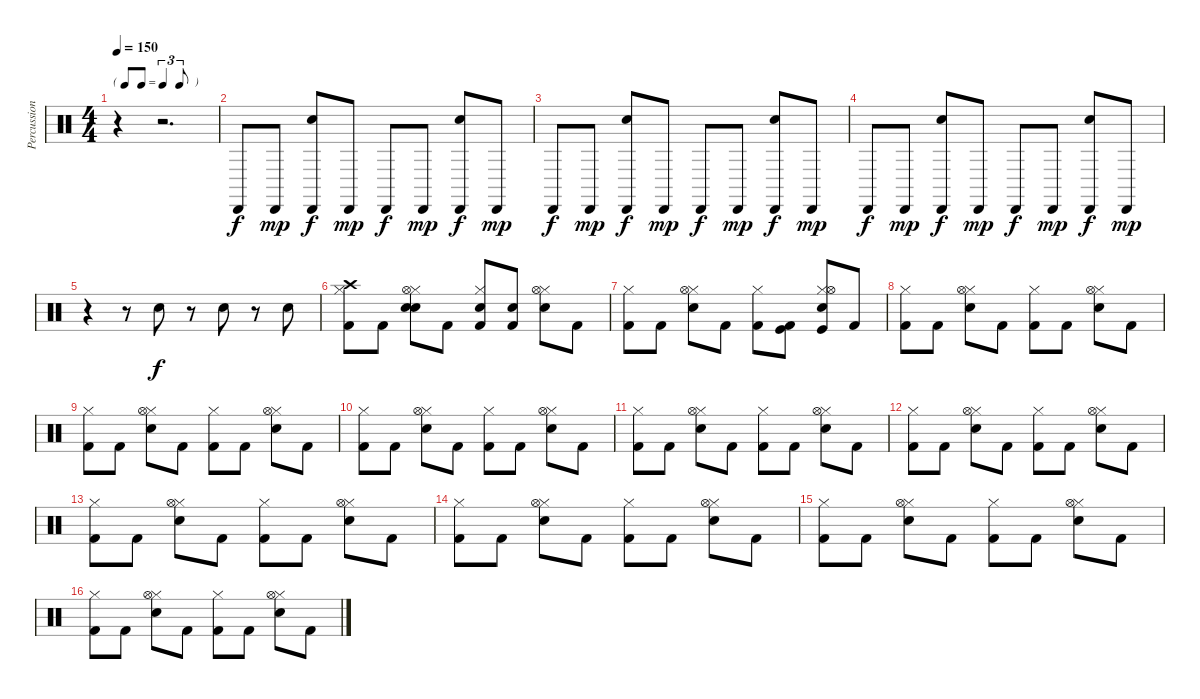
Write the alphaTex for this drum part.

\track ("Percussion" "Percussion") {instrument percussion}
\staff {score}
\articulation defaults
\ts (4 4)
\tf triplet8th
\tempo 150
\clef neutral
\ks c
r.4{dy f} r.2{d} |
"Cabasa (hit)".8 "Cabasa (hit)".8{dy mp} ("Cabasa (hit)" "Hand Clap (hit)").8{dy f} "Cabasa (hit)".8{dy mp} "Cabasa (hit)".8{dy f} "Cabasa (hit)".8{dy mp} ("Cabasa (hit)" "Hand Clap (hit)").8{dy f} "Cabasa (hit)".8{dy mp} |
"Cabasa (hit)".8{dy f} "Cabasa (hit)".8{dy mp} ("Cabasa (hit)" "Hand Clap (hit)").8{dy f} "Cabasa (hit)".8{dy mp} "Cabasa (hit)".8{dy f} "Cabasa (hit)".8{dy mp} ("Cabasa (hit)" "Hand Clap (hit)").8{dy f} "Cabasa (hit)".8{dy mp} |
"Cabasa (hit)".8{dy f} "Cabasa (hit)".8{dy mp} ("Cabasa (hit)" "Hand Clap (hit)").8{dy f} "Cabasa (hit)".8{dy mp} "Cabasa (hit)".8{dy f} "Cabasa (hit)".8{dy mp} ("Cabasa (hit)" "Hand Clap (hit)").8{dy f} "Cabasa (hit)".8{dy mp} |
r.4 r.8 "Snare (hit) 2".8{dy f} r.8 "Snare (hit) 2".8 r.8 "Snare (hit) 2".8 |
("Hi-Hat (closed)" "Kick (hit) 2" "Crash high (hit)").8 "Kick (hit) 2".8 ("Hi-Hat (closed)" "Snare (hit) 2" "Snare (hit)" "Hi-Hat (open)").8 "Kick (hit) 2".8 ("Hi-Hat (closed)" "Kick (hit) 2" "Snare (hit)").8 ("Kick (hit) 2" "Snare (hit)").8 ("Hi-Hat (closed)" "Snare (hit) 2" "Hi-Hat (open)").8 "Kick (hit) 2".8 |
("Hi-Hat (closed)" "Kick (hit) 2").8 "Kick (hit) 2".8 ("Hi-Hat (closed)" "Snare (hit) 2" "Hi-Hat (open)").8 "Kick (hit) 2".8 ("Hi-Hat (closed)" "Kick (hit) 2").8 ("Kick (hit) 2" "Kick (hit)").8 ("Hi-Hat (closed)" "Snare (hit) 2" "Hi-Hat (open)" "Kick (hit)").8 "Kick (hit) 2".8 |
("Hi-Hat (closed)" "Kick (hit) 2").8 "Kick (hit) 2".8 ("Hi-Hat (closed)" "Snare (hit) 2" "Hi-Hat (open)").8 "Kick (hit) 2".8 ("Hi-Hat (closed)" "Kick (hit) 2").8 "Kick (hit) 2".8 ("Hi-Hat (closed)" "Snare (hit) 2" "Hi-Hat (open)").8 "Kick (hit) 2".8 |
("Hi-Hat (closed)" "Kick (hit) 2").8 "Kick (hit) 2".8 ("Hi-Hat (closed)" "Snare (hit) 2" "Hi-Hat (open)").8 "Kick (hit) 2".8 ("Hi-Hat (closed)" "Kick (hit) 2").8 "Kick (hit) 2".8 ("Hi-Hat (closed)" "Snare (hit) 2" "Hi-Hat (open)").8 "Kick (hit) 2".8 |
("Hi-Hat (closed)" "Kick (hit) 2").8 "Kick (hit) 2".8 ("Hi-Hat (closed)" "Snare (hit) 2" "Hi-Hat (open)").8 "Kick (hit) 2".8 ("Hi-Hat (closed)" "Kick (hit) 2").8 "Kick (hit) 2".8 ("Hi-Hat (closed)" "Snare (hit) 2" "Hi-Hat (open)").8 "Kick (hit) 2".8 |
("Hi-Hat (closed)" "Kick (hit) 2").8 "Kick (hit) 2".8 ("Hi-Hat (closed)" "Snare (hit) 2" "Hi-Hat (open)").8 "Kick (hit) 2".8 ("Hi-Hat (closed)" "Kick (hit) 2").8 "Kick (hit) 2".8 ("Hi-Hat (closed)" "Snare (hit) 2" "Hi-Hat (open)").8 "Kick (hit) 2".8 |
("Hi-Hat (closed)" "Kick (hit) 2").8 "Kick (hit) 2".8 ("Hi-Hat (closed)" "Snare (hit) 2" "Hi-Hat (open)").8 "Kick (hit) 2".8 ("Hi-Hat (closed)" "Kick (hit) 2").8 "Kick (hit) 2".8 ("Hi-Hat (closed)" "Snare (hit) 2" "Hi-Hat (open)").8 "Kick (hit) 2".8 |
("Hi-Hat (closed)" "Kick (hit) 2").8 "Kick (hit) 2".8 ("Hi-Hat (closed)" "Snare (hit) 2" "Hi-Hat (open)").8 "Kick (hit) 2".8 ("Hi-Hat (closed)" "Kick (hit) 2").8 "Kick (hit) 2".8 ("Hi-Hat (closed)" "Snare (hit) 2" "Hi-Hat (open)").8 "Kick (hit) 2".8 |
("Hi-Hat (closed)" "Kick (hit) 2").8 "Kick (hit) 2".8 ("Hi-Hat (closed)" "Snare (hit) 2" "Hi-Hat (open)").8 "Kick (hit) 2".8 ("Hi-Hat (closed)" "Kick (hit) 2").8 "Kick (hit) 2".8 ("Hi-Hat (closed)" "Snare (hit) 2" "Hi-Hat (open)").8 "Kick (hit) 2".8 |
("Hi-Hat (closed)" "Kick (hit) 2").8 "Kick (hit) 2".8 ("Hi-Hat (closed)" "Snare (hit) 2" "Hi-Hat (open)").8 "Kick (hit) 2".8 ("Hi-Hat (closed)" "Kick (hit) 2").8 "Kick (hit) 2".8 ("Hi-Hat (closed)" "Snare (hit) 2" "Hi-Hat (open)").8 "Kick (hit) 2".8 |
("Hi-Hat (closed)" "Kick (hit) 2").8 "Kick (hit) 2".8 ("Hi-Hat (closed)" "Snare (hit) 2" "Hi-Hat (open)").8 "Kick (hit) 2".8 ("Hi-Hat (closed)" "Kick (hit) 2").8 "Kick (hit) 2".8 ("Hi-Hat (closed)" "Snare (hit) 2" "Hi-Hat (open)").8 "Kick (hit) 2".8
